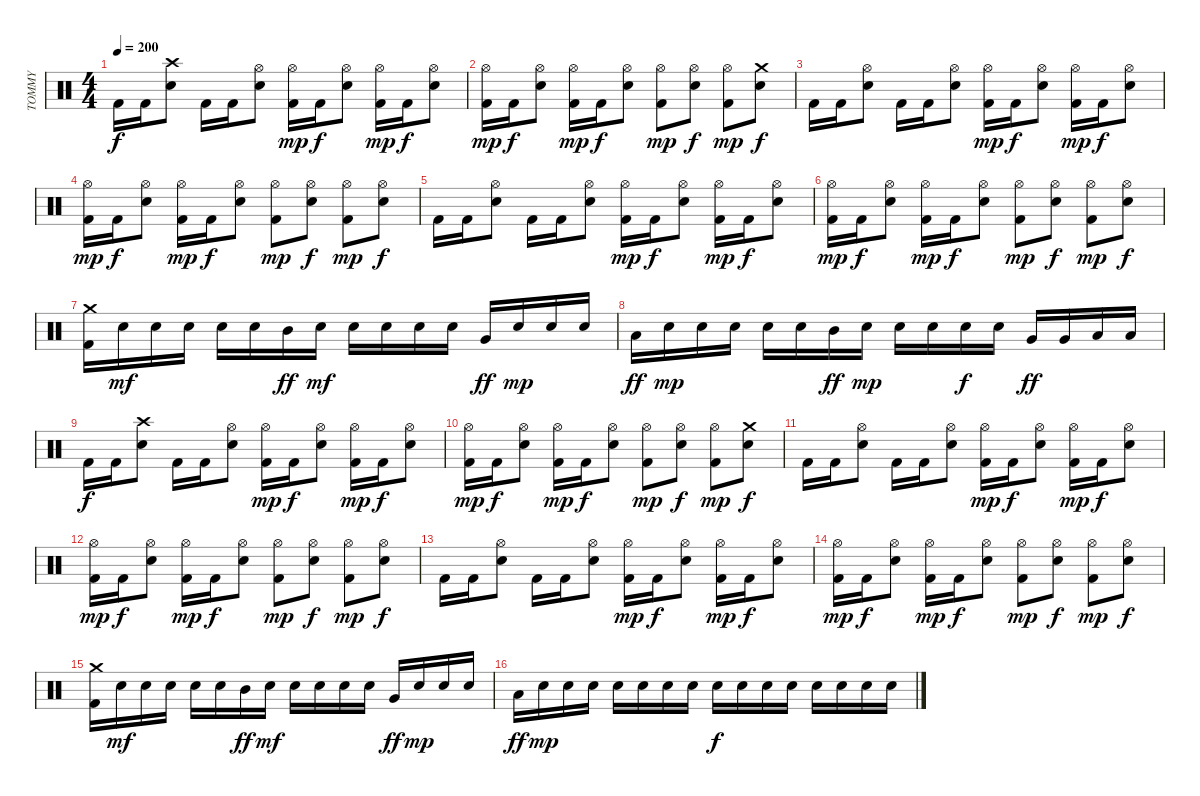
\track ("TOMMY" "TOMMY") {instrument percussion}
\staff {score}
\articulation defaults
\ts (4 4)
\tempo 200
\clef neutral
\ks c "Kick (hit) 2".16{dy f} "Kick (hit) 2".16
("Snare (hit) 2" "Crash high (hit)").8 "Kick (hit) 2".16 "Kick (hit) 2".16 ("Snare (hit) 2" "Hi-Hat (open)").8 ("Kick (hit) 2" "Hi-Hat (open)").16{dy mp} "Kick (hit) 2".16{dy f} ("Snare (hit) 2" "Hi-Hat (open)").8 ("Kick (hit) 2" "Hi-Hat (open)").16{dy mp} "Kick (hit) 2".16{dy f} ("Snare (hit) 2" "Hi-Hat (open)").8 |
("Kick (hit) 2" "Hi-Hat (open)").16{dy mp} "Kick (hit) 2".16{dy f} ("Snare (hit) 2" "Hi-Hat (open)").8 ("Kick (hit) 2" "Hi-Hat (open)").16{dy mp} "Kick (hit) 2".16{dy f} ("Snare (hit) 2" "Hi-Hat (open)").8 ("Kick (hit) 2" "Hi-Hat (open)").8{dy mp} ("Snare (hit) 2" "Hi-Hat (open)").8{dy f} ("Kick (hit) 2" "Hi-Hat (open)").8{dy mp} ("Snare (hit) 2" "Crash medium (hit)").8{dy f} |
"Kick (hit) 2".16 "Kick (hit) 2".16 ("Snare (hit) 2" "Hi-Hat (open)").8 "Kick (hit) 2".16 "Kick (hit) 2".16 ("Snare (hit) 2" "Hi-Hat (open)").8 ("Kick (hit) 2" "Hi-Hat (open)").16{dy mp} "Kick (hit) 2".16{dy f} ("Snare (hit) 2" "Hi-Hat (open)").8 ("Kick (hit) 2" "Hi-Hat (open)").16{dy mp} "Kick (hit) 2".16{dy f} ("Snare (hit) 2" "Hi-Hat (open)").8 |
("Kick (hit) 2" "Hi-Hat (open)").16{dy mp} "Kick (hit) 2".16{dy f} ("Snare (hit) 2" "Hi-Hat (open)").8 ("Kick (hit) 2" "Hi-Hat (open)").16{dy mp} "Kick (hit) 2".16{dy f} ("Snare (hit) 2" "Hi-Hat (open)").8 ("Kick (hit) 2" "Hi-Hat (open)").8{dy mp} ("Snare (hit) 2" "Hi-Hat (open)").8{dy f} ("Kick (hit) 2" "Hi-Hat (open)").8{dy mp} ("Snare (hit) 2" "Hi-Hat (open)").8{dy f} |
"Kick (hit) 2".16 "Kick (hit) 2".16 ("Snare (hit) 2" "Hi-Hat (open)").8 "Kick (hit) 2".16 "Kick (hit) 2".16 ("Snare (hit) 2" "Hi-Hat (open)").8 ("Kick (hit) 2" "Hi-Hat (open)").16{dy mp} "Kick (hit) 2".16{dy f} ("Snare (hit) 2" "Hi-Hat (open)").8 ("Kick (hit) 2" "Hi-Hat (open)").16{dy mp} "Kick (hit) 2".16{dy f} ("Snare (hit) 2" "Hi-Hat (open)").8 |
("Kick (hit) 2" "Hi-Hat (open)").16{dy mp} "Kick (hit) 2".16{dy f} ("Snare (hit) 2" "Hi-Hat (open)").8 ("Kick (hit) 2" "Hi-Hat (open)").16{dy mp} "Kick (hit) 2".16{dy f} ("Snare (hit) 2" "Hi-Hat (open)").8 ("Kick (hit) 2" "Hi-Hat (open)").8{dy mp} ("Snare (hit) 2" "Hi-Hat (open)").8{dy f} ("Kick (hit) 2" "Hi-Hat (open)").8{dy mp} ("Snare (hit) 2" "Hi-Hat (open)").8{dy f} |
("Kick (hit) 2" "Crash medium (hit)").16 "Snare (hit) 2".16{dy mf} "Snare (hit) 2".16 "Snare (hit) 2".16 "Snare (hit) 2".16 "Snare (hit) 2".16 "Mid Tom (hit)".16{dy ff} "Snare (hit) 2".16{dy mf} "Snare (hit) 2".16 "Snare (hit) 2".16 "Snare (hit) 2".16 "Snare (hit) 2".16 "Very Low Tom (hit)".16{dy ff} "Snare (hit) 2".16{dy mp} "Snare (hit) 2".16 "Snare (hit) 2".16 |
"Low Floor Tom (hit)".16{dy ff} "Snare (hit) 2".16{dy mp} "Snare (hit) 2".16 "Snare (hit) 2".16 "Snare (hit) 2".16 "Snare (hit) 2".16 "Mid Tom (hit)".16{dy ff} "Snare (hit) 2".16{dy mp} "Snare (hit) 2".16 "Snare (hit) 2".16 "Snare (hit) 2".16{dy f} "Snare (hit) 2".16 "Very Low Tom (hit)".16{dy ff} "Very Low Tom (hit)".16 "Low Floor Tom (hit)".16 "Low Floor Tom (hit)".16 |
"Kick (hit) 2".16{dy f} "Kick (hit) 2".16 ("Snare (hit) 2" "Crash high (hit)").8 "Kick (hit) 2".16 "Kick (hit) 2".16 ("Snare (hit) 2" "Hi-Hat (open)").8 ("Kick (hit) 2" "Hi-Hat (open)").16{dy mp} "Kick (hit) 2".16{dy f} ("Snare (hit) 2" "Hi-Hat (open)").8 ("Kick (hit) 2" "Hi-Hat (open)").16{dy mp} "Kick (hit) 2".16{dy f} ("Snare (hit) 2" "Hi-Hat (open)").8 |
("Kick (hit) 2" "Hi-Hat (open)").16{dy mp} "Kick (hit) 2".16{dy f} ("Snare (hit) 2" "Hi-Hat (open)").8 ("Kick (hit) 2" "Hi-Hat (open)").16{dy mp} "Kick (hit) 2".16{dy f} ("Snare (hit) 2" "Hi-Hat (open)").8 ("Kick (hit) 2" "Hi-Hat (open)").8{dy mp} ("Snare (hit) 2" "Hi-Hat (open)").8{dy f} ("Kick (hit) 2" "Hi-Hat (open)").8{dy mp} ("Snare (hit) 2" "Crash medium (hit)").8{dy f} |
"Kick (hit) 2".16 "Kick (hit) 2".16 ("Snare (hit) 2" "Hi-Hat (open)").8 "Kick (hit) 2".16 "Kick (hit) 2".16 ("Snare (hit) 2" "Hi-Hat (open)").8 ("Kick (hit) 2" "Hi-Hat (open)").16{dy mp} "Kick (hit) 2".16{dy f} ("Snare (hit) 2" "Hi-Hat (open)").8 ("Kick (hit) 2" "Hi-Hat (open)").16{dy mp} "Kick (hit) 2".16{dy f} ("Snare (hit) 2" "Hi-Hat (open)").8 |
("Kick (hit) 2" "Hi-Hat (open)").16{dy mp} "Kick (hit) 2".16{dy f} ("Snare (hit) 2" "Hi-Hat (open)").8 ("Kick (hit) 2" "Hi-Hat (open)").16{dy mp} "Kick (hit) 2".16{dy f} ("Snare (hit) 2" "Hi-Hat (open)").8 ("Kick (hit) 2" "Hi-Hat (open)").8{dy mp} ("Snare (hit) 2" "Hi-Hat (open)").8{dy f} ("Kick (hit) 2" "Hi-Hat (open)").8{dy mp} ("Snare (hit) 2" "Hi-Hat (open)").8{dy f} |
"Kick (hit) 2".16 "Kick (hit) 2".16 ("Snare (hit) 2" "Hi-Hat (open)").8 "Kick (hit) 2".16 "Kick (hit) 2".16 ("Snare (hit) 2" "Hi-Hat (open)").8 ("Kick (hit) 2" "Hi-Hat (open)").16{dy mp} "Kick (hit) 2".16{dy f} ("Snare (hit) 2" "Hi-Hat (open)").8 ("Kick (hit) 2" "Hi-Hat (open)").16{dy mp} "Kick (hit) 2".16{dy f} ("Snare (hit) 2" "Hi-Hat (open)").8 |
("Kick (hit) 2" "Hi-Hat (open)").16{dy mp} "Kick (hit) 2".16{dy f} ("Snare (hit) 2" "Hi-Hat (open)").8 ("Kick (hit) 2" "Hi-Hat (open)").16{dy mp} "Kick (hit) 2".16{dy f} ("Snare (hit) 2" "Hi-Hat (open)").8 ("Kick (hit) 2" "Hi-Hat (open)").8{dy mp} ("Snare (hit) 2" "Hi-Hat (open)").8{dy f} ("Kick (hit) 2" "Hi-Hat (open)").8{dy mp} ("Snare (hit) 2" "Hi-Hat (open)").8{dy f} |
("Kick (hit) 2" "Crash medium (hit)").16 "Snare (hit) 2".16{dy mf} "Snare (hit) 2".16 "Snare (hit) 2".16 "Snare (hit) 2".16 "Snare (hit) 2".16 "Mid Tom (hit)".16{dy ff} "Snare (hit) 2".16{dy mf} "Snare (hit) 2".16 "Snare (hit) 2".16 "Snare (hit) 2".16 "Snare (hit) 2".16 "Very Low Tom (hit)".16{dy ff} "Snare (hit) 2".16{dy mp} "Snare (hit) 2".16 "Snare (hit) 2".16 |
"Low Floor Tom (hit)".16{dy ff} "Snare (hit) 2".16{dy mp} "Snare (hit) 2".16 "Snare (hit) 2".16 "Snare (hit) 2".16 "Snare (hit) 2".16 "Snare (hit) 2".16 "Snare (hit) 2".16 "Snare (hit) 2".16{dy f} "Snare (hit) 2".16 "Snare (hit) 2".16 "Snare (hit) 2".16 "Snare (hit) 2".16 "Snare (hit) 2".16 "Snare (hit) 2".16 "Snare (hit) 2".16
